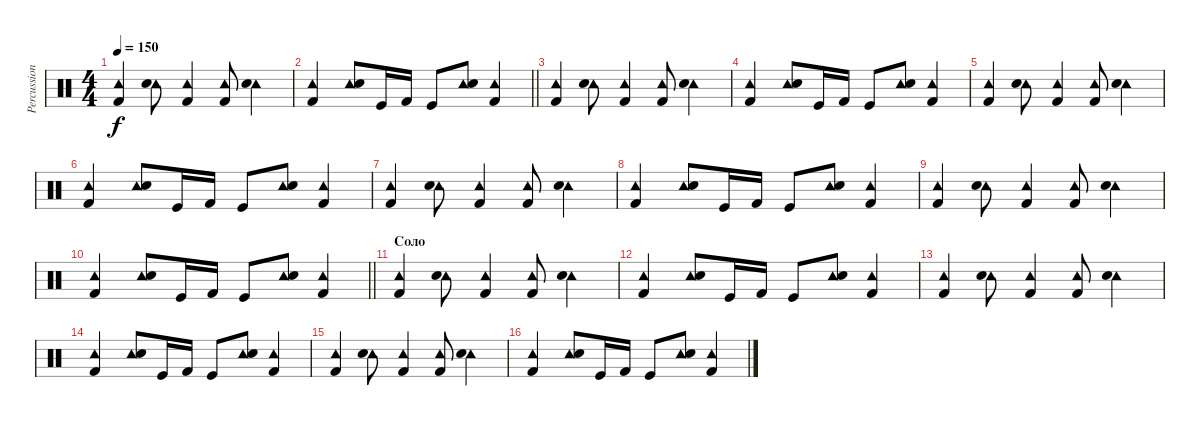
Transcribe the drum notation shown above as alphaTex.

\track ("Percussion" "Percussion") {instrument percussion bank 3}
\staff {score}
\articulation defaults
\ts (4 4)
\tempo 150
\clef neutral
\ks c
("Tambourine (hit)" "Kick (hit) 2").4{dy f} ("Tambourine (hit)" "Snare (hit) 2").8 ("Tambourine (hit)" "Kick (hit) 2").4 ("Tambourine (hit)" "Kick (hit) 2").8 ("Tambourine (hit)" "Snare (hit) 2").4 |
\barLineRight lightlight
("Tambourine (hit)" "Kick (hit) 2").4 ("Tambourine (hit)" "Snare (hit) 2").8 "Kick (hit)".16 "Kick (hit) 2".16 "Kick (hit)".8 ("Tambourine (hit)" "Snare (hit) 2").8 ("Tambourine (hit)" "Kick (hit) 2").4 |
("Tambourine (hit)" "Kick (hit) 2").4 ("Tambourine (hit)" "Snare (hit) 2").8 ("Tambourine (hit)" "Kick (hit) 2").4 ("Tambourine (hit)" "Kick (hit) 2").8 ("Tambourine (hit)" "Snare (hit) 2").4 |
("Tambourine (hit)" "Kick (hit) 2").4 ("Tambourine (hit)" "Snare (hit) 2").8 "Kick (hit)".16 "Kick (hit) 2".16 "Kick (hit)".8 ("Tambourine (hit)" "Snare (hit) 2").8 ("Tambourine (hit)" "Kick (hit) 2").4 |
("Tambourine (hit)" "Kick (hit) 2").4 ("Tambourine (hit)" "Snare (hit) 2").8 ("Tambourine (hit)" "Kick (hit) 2").4 ("Tambourine (hit)" "Kick (hit) 2").8 ("Tambourine (hit)" "Snare (hit) 2").4 |
("Tambourine (hit)" "Kick (hit) 2").4 ("Tambourine (hit)" "Snare (hit) 2").8 "Kick (hit)".16 "Kick (hit) 2".16 "Kick (hit)".8 ("Tambourine (hit)" "Snare (hit) 2").8 ("Tambourine (hit)" "Kick (hit) 2").4 |
("Tambourine (hit)" "Kick (hit) 2").4 ("Tambourine (hit)" "Snare (hit) 2").8 ("Tambourine (hit)" "Kick (hit) 2").4 ("Tambourine (hit)" "Kick (hit) 2").8 ("Tambourine (hit)" "Snare (hit) 2").4 |
("Tambourine (hit)" "Kick (hit) 2").4 ("Tambourine (hit)" "Snare (hit) 2").8 "Kick (hit)".16 "Kick (hit) 2".16 "Kick (hit)".8 ("Tambourine (hit)" "Snare (hit) 2").8 ("Tambourine (hit)" "Kick (hit) 2").4 |
("Tambourine (hit)" "Kick (hit) 2").4 ("Tambourine (hit)" "Snare (hit) 2").8 ("Tambourine (hit)" "Kick (hit) 2").4 ("Tambourine (hit)" "Kick (hit) 2").8 ("Tambourine (hit)" "Snare (hit) 2").4 |
\barLineRight lightlight
("Tambourine (hit)" "Kick (hit) 2").4 ("Tambourine (hit)" "Snare (hit) 2").8 "Kick (hit)".16 "Kick (hit) 2".16 "Kick (hit)".8 ("Tambourine (hit)" "Snare (hit) 2").8 ("Tambourine (hit)" "Kick (hit) 2").4 |
\section ("" "Соло")
("Tambourine (hit)" "Kick (hit) 2").4 ("Tambourine (hit)" "Snare (hit) 2").8 ("Tambourine (hit)" "Kick (hit) 2").4 ("Tambourine (hit)" "Kick (hit) 2").8 ("Tambourine (hit)" "Snare (hit) 2").4 |
("Tambourine (hit)" "Kick (hit) 2").4 ("Tambourine (hit)" "Snare (hit) 2").8 "Kick (hit)".16 "Kick (hit) 2".16 "Kick (hit)".8 ("Tambourine (hit)" "Snare (hit) 2").8 ("Tambourine (hit)" "Kick (hit) 2").4 |
("Tambourine (hit)" "Kick (hit) 2").4 ("Tambourine (hit)" "Snare (hit) 2").8 ("Tambourine (hit)" "Kick (hit) 2").4 ("Tambourine (hit)" "Kick (hit) 2").8 ("Tambourine (hit)" "Snare (hit) 2").4 |
("Tambourine (hit)" "Kick (hit) 2").4 ("Tambourine (hit)" "Snare (hit) 2").8 "Kick (hit)".16 "Kick (hit) 2".16 "Kick (hit)".8 ("Tambourine (hit)" "Snare (hit) 2").8 ("Tambourine (hit)" "Kick (hit) 2").4 |
("Tambourine (hit)" "Kick (hit) 2").4 ("Tambourine (hit)" "Snare (hit) 2").8 ("Tambourine (hit)" "Kick (hit) 2").4 ("Tambourine (hit)" "Kick (hit) 2").8 ("Tambourine (hit)" "Snare (hit) 2").4 |
("Tambourine (hit)" "Kick (hit) 2").4 ("Tambourine (hit)" "Snare (hit) 2").8 "Kick (hit)".16 "Kick (hit) 2".16 "Kick (hit)".8 ("Tambourine (hit)" "Snare (hit) 2").8 ("Tambourine (hit)" "Kick (hit) 2").4
